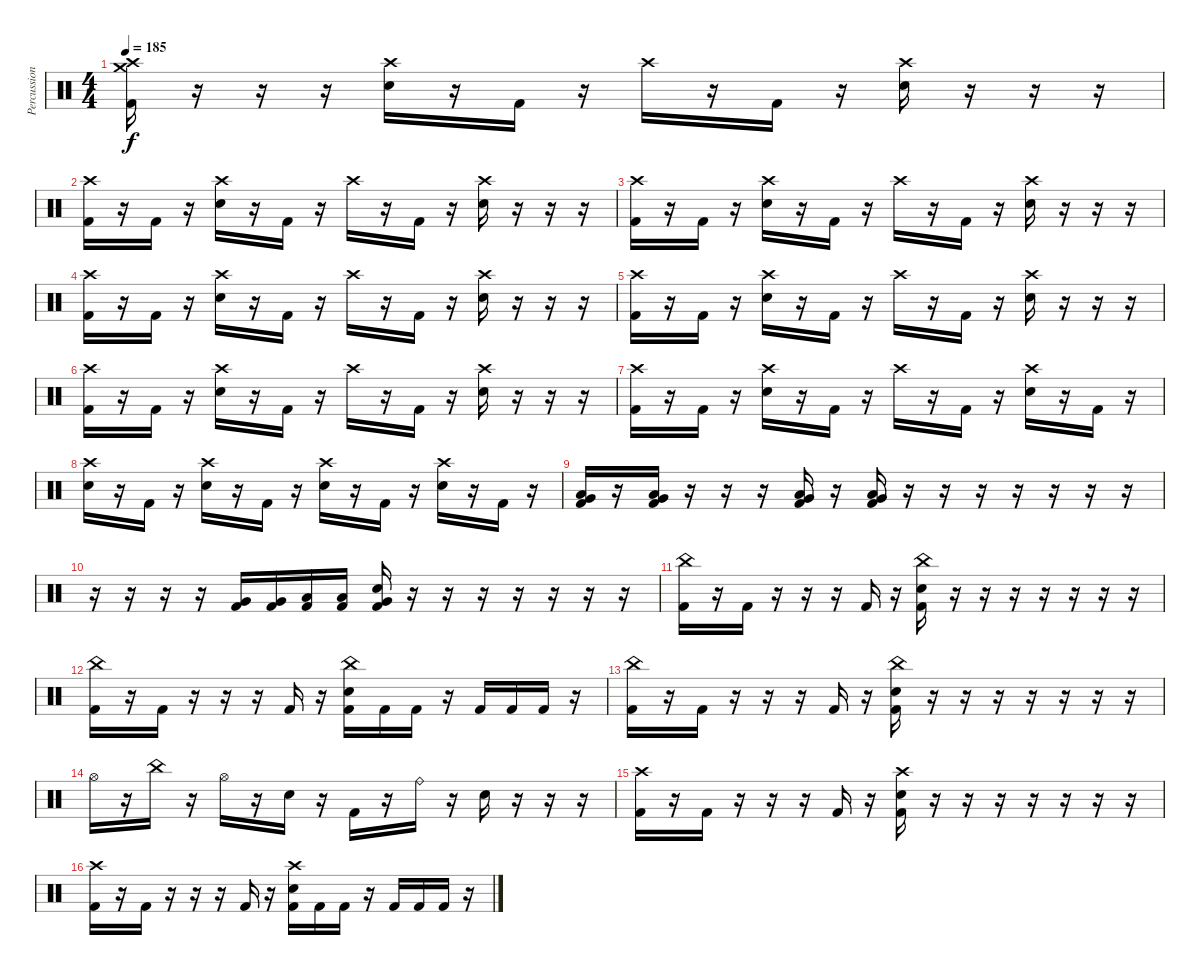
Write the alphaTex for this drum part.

\track ("Percussion" "Percussion") {instrument percussion}
\staff {score}
\articulation defaults
\ts (4 4)
\tempo 185
\clef neutral
\ks c
("Crash high (hit)" "Crash medium (hit)" "Kick (hit) 2").16{dy f} r.16 r.16 r.16 ("Crash high (hit)" "Electric Snare (hit)").16 r.16 "Kick (hit) 2".16 r.16 "Crash high (hit)".16 r.16 "Kick (hit) 2".16 r.16 ("Crash high (hit)" "Electric Snare (hit)").16 r.16 r.16 r.16 |
("Crash high (hit)" "Kick (hit) 2").16 r.16 "Kick (hit) 2".16 r.16 ("Crash high (hit)" "Electric Snare (hit)").16 r.16 "Kick (hit) 2".16 r.16 "Crash high (hit)".16 r.16 "Kick (hit) 2".16 r.16 ("Crash high (hit)" "Electric Snare (hit)").16 r.16 r.16 r.16 |
("Crash high (hit)" "Kick (hit) 2").16 r.16 "Kick (hit) 2".16 r.16 ("Crash high (hit)" "Electric Snare (hit)").16 r.16 "Kick (hit) 2".16 r.16 "Crash high (hit)".16 r.16 "Kick (hit) 2".16 r.16 ("Crash high (hit)" "Electric Snare (hit)").16 r.16 r.16 r.16 |
("Crash high (hit)" "Kick (hit) 2").16 r.16 "Kick (hit) 2".16 r.16 ("Crash high (hit)" "Electric Snare (hit)").16 r.16 "Kick (hit) 2".16 r.16 "Crash high (hit)".16 r.16 "Kick (hit) 2".16 r.16 ("Crash high (hit)" "Electric Snare (hit)").16 r.16 r.16 r.16 |
("Crash high (hit)" "Kick (hit) 2").16 r.16 "Kick (hit) 2".16 r.16 ("Crash high (hit)" "Electric Snare (hit)").16 r.16 "Kick (hit) 2".16 r.16 "Crash high (hit)".16 r.16 "Kick (hit) 2".16 r.16 ("Crash high (hit)" "Electric Snare (hit)").16 r.16 r.16 r.16 |
("Crash high (hit)" "Kick (hit) 2").16 r.16 "Kick (hit) 2".16 r.16 ("Crash high (hit)" "Electric Snare (hit)").16 r.16 "Kick (hit) 2".16 r.16 "Crash high (hit)".16 r.16 "Kick (hit) 2".16 r.16 ("Crash high (hit)" "Electric Snare (hit)").16 r.16 r.16 r.16 |
("Crash high (hit)" "Kick (hit) 2").16 r.16 "Kick (hit) 2".16 r.16 ("Crash high (hit)" "Electric Snare (hit)").16 r.16 "Kick (hit) 2".16 r.16 "Crash high (hit)".16 r.16 "Kick (hit) 2".16 r.16 ("Crash high (hit)" "Electric Snare (hit)").16 r.16 "Kick (hit) 2".16 r.16 |
("Crash high (hit)" "Electric Snare (hit)").16 r.16 "Kick (hit) 2".16 r.16 ("Crash high (hit)" "Electric Snare (hit)").16 r.16 "Kick (hit) 2".16 r.16 ("Crash high (hit)" "Electric Snare (hit)").16 r.16 "Kick (hit) 2".16 r.16 ("Crash high (hit)" "Electric Snare (hit)").16 r.16 "Kick (hit) 2".16 r.16 |
("Very Low Tom (hit)" "Low Floor Tom (hit)" "Kick (hit) 2").16 r.16 ("Very Low Tom (hit)" "Low Floor Tom (hit)" "Kick (hit) 2").16 r.16 r.16 r.16 ("Very Low Tom (hit)" "Low Floor Tom (hit)" "Kick (hit) 2").16 r.16 ("Very Low Tom (hit)" "Low Floor Tom (hit)" "Kick (hit) 2").16 r.16 r.16 r.16 r.16 r.16 r.16 r.16 |
r.16 r.16 r.16 r.16 ("Very Low Tom (hit)" "Kick (hit) 2").16 ("Very Low Tom (hit)" "Kick (hit) 2").16 ("Low Floor Tom (hit)" "Kick (hit) 2").16 ("Low Floor Tom (hit)" "Kick (hit) 2").16 ("Very Low Tom (hit)" "Electric Snare (hit)" "Kick (hit) 2").16 r.16 r.16 r.16 r.16 r.16 r.16 r.16 |
("China (hit)" "Kick (hit) 2").16 r.16 "Kick (hit) 2".16 r.16 r.16 r.16 "Kick (hit) 2".16 r.16 ("China (hit)" "Electric Snare (hit)" "Kick (hit) 2").16 r.16 r.16 r.16 r.16 r.16 r.16 r.16 |
("China (hit)" "Kick (hit) 2").16 r.16 "Kick (hit) 2".16 r.16 r.16 r.16 "Kick (hit) 2".16 r.16 ("China (hit)" "Electric Snare (hit)" "Kick (hit) 2").16 "Kick (hit) 2".16 "Kick (hit) 2".16 r.16 "Kick (hit) 2".16 "Kick (hit) 2".16 "Kick (hit) 2".16 r.16 |
("China (hit)" "Kick (hit) 2").16 r.16 "Kick (hit) 2".16 r.16 r.16 r.16 "Kick (hit) 2".16 r.16 ("China (hit)" "Electric Snare (hit)" "Kick (hit) 2").16 r.16 r.16 r.16 r.16 r.16 r.16 r.16 |
"Hi-Hat (open)".16 r.16 "China (hit)".16 r.16 "Hi-Hat (open)".16 r.16 "Electric Snare (hit)".16 r.16 "Kick (hit) 2".16 r.16 "Ride (bell)".16 r.16 "Electric Snare (hit)".16 r.16 r.16 r.16 |
("Crash high (hit)" "Kick (hit) 2").16 r.16 "Kick (hit) 2".16 r.16 r.16 r.16 "Kick (hit) 2".16 r.16 ("Crash high (hit)" "Electric Snare (hit)" "Kick (hit) 2").16 r.16 r.16 r.16 r.16 r.16 r.16 r.16 |
("Crash high (hit)" "Kick (hit) 2").16 r.16 "Kick (hit) 2".16 r.16 r.16 r.16 "Kick (hit) 2".16 r.16 ("Crash high (hit)" "Electric Snare (hit)" "Kick (hit) 2").16 "Kick (hit) 2".16 "Kick (hit) 2".16 r.16 "Kick (hit) 2".16 "Kick (hit) 2".16 "Kick (hit) 2".16 r.16
